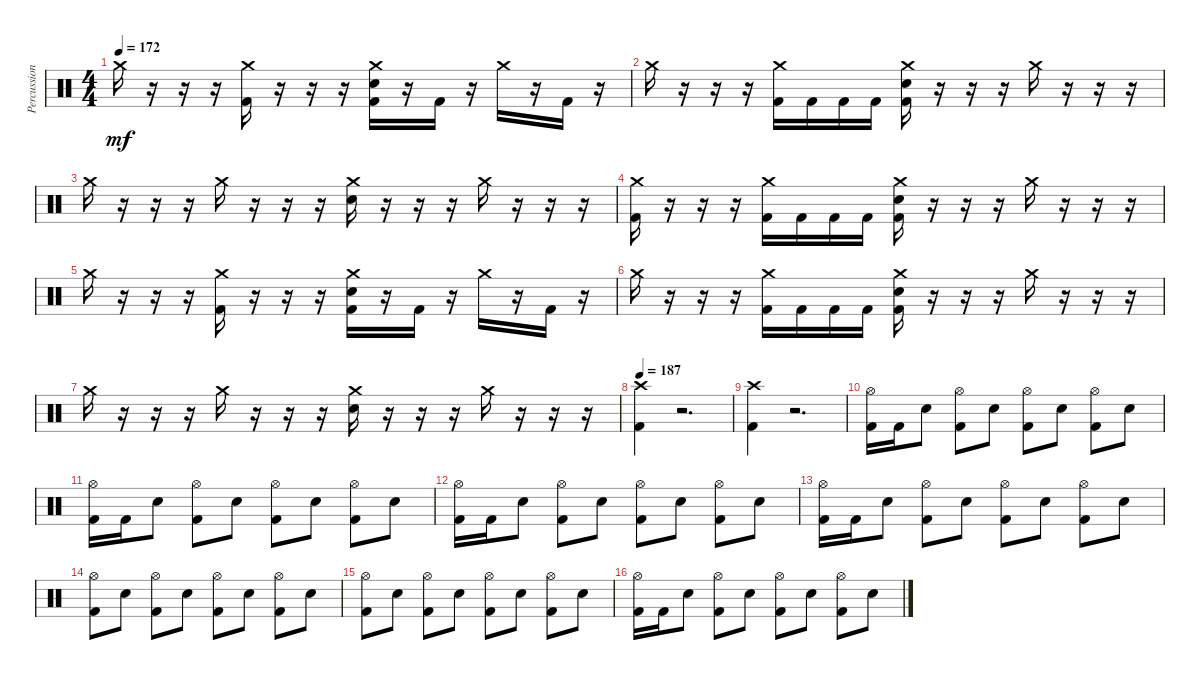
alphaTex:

\track ("Percussion" "Percussion") {instrument percussion}
\staff {score}
\articulation defaults
\ts (4 4)
\tempo 172
\clef neutral
\ks c "Crash medium (hit)".16{dy mf}
r.16 r.16 r.16 ("Crash medium (hit)" "Kick (hit) 2").16 r.16 r.16 r.16 ("Crash medium (hit)" "Electric Snare (hit)" "Kick (hit) 2").16 r.16 "Kick (hit) 2".16 r.16 "Crash medium (hit)".16 r.16 "Kick (hit) 2".16 r.16 |
"Crash medium (hit)".16 r.16 r.16 r.16 ("Crash medium (hit)" "Kick (hit) 2").16 "Kick (hit) 2".16 "Kick (hit) 2".16 "Kick (hit) 2".16 ("Crash medium (hit)" "Electric Snare (hit)" "Kick (hit) 2").16 r.16 r.16 r.16 "Crash medium (hit)".16 r.16 r.16 r.16 |
"Crash medium (hit)".16 r.16 r.16 r.16 "Crash medium (hit)".16 r.16 r.16 r.16 ("Crash medium (hit)" "Electric Snare (hit)").16 r.16 r.16 r.16 "Crash medium (hit)".16 r.16 r.16 r.16 |
("Crash medium (hit)" "Kick (hit) 2").16 r.16 r.16 r.16 ("Crash medium (hit)" "Kick (hit) 2").16 "Kick (hit) 2".16 "Kick (hit) 2".16 "Kick (hit) 2".16 ("Crash medium (hit)" "Electric Snare (hit)" "Kick (hit) 2").16 r.16 r.16 r.16 "Crash medium (hit)".16 r.16 r.16 r.16 |
"Crash medium (hit)".16 r.16 r.16 r.16 ("Crash medium (hit)" "Kick (hit) 2").16 r.16 r.16 r.16 ("Crash medium (hit)" "Electric Snare (hit)" "Kick (hit) 2").16 r.16 "Kick (hit) 2".16 r.16 "Crash medium (hit)".16 r.16 "Kick (hit) 2".16 r.16 |
"Crash medium (hit)".16 r.16 r.16 r.16 ("Crash medium (hit)" "Kick (hit) 2").16 "Kick (hit) 2".16 "Kick (hit) 2".16 "Kick (hit) 2".16 ("Crash medium (hit)" "Electric Snare (hit)" "Kick (hit) 2").16 r.16 r.16 r.16 "Crash medium (hit)".16 r.16 r.16 r.16 |
"Crash medium (hit)".16 r.16 r.16 r.16 "Crash medium (hit)".16 r.16 r.16 r.16 ("Crash medium (hit)" "Electric Snare (hit)").16 r.16 r.16 r.16 "Crash medium (hit)".16 r.16 r.16 r.16 |
\tempo 187
("Crash high (hit)" "Kick (hit) 2").4 r.2{d} |
("Crash high (hit)" "Kick (hit) 2").4 r.2{d} |
("Hi-Hat (open)" "Kick (hit) 2").16 "Kick (hit) 2".16 "Electric Snare (hit)".8 ("Hi-Hat (open)" "Kick (hit) 2").8 "Electric Snare (hit)".8 ("Hi-Hat (open)" "Kick (hit) 2").8 "Electric Snare (hit)".8 ("Hi-Hat (open)" "Kick (hit) 2").8 "Electric Snare (hit)".8 |
("Hi-Hat (open)" "Kick (hit) 2").16 "Kick (hit) 2".16 "Electric Snare (hit)".8 ("Hi-Hat (open)" "Kick (hit) 2").8 "Electric Snare (hit)".8 ("Hi-Hat (open)" "Kick (hit) 2").8 "Electric Snare (hit)".8 ("Hi-Hat (open)" "Kick (hit) 2").8 "Electric Snare (hit)".8 |
("Hi-Hat (open)" "Kick (hit) 2").16 "Kick (hit) 2".16 "Electric Snare (hit)".8 ("Hi-Hat (open)" "Kick (hit) 2").8 "Electric Snare (hit)".8 ("Hi-Hat (open)" "Kick (hit) 2").8 "Electric Snare (hit)".8 ("Hi-Hat (open)" "Kick (hit) 2").8 "Electric Snare (hit)".8 |
("Hi-Hat (open)" "Kick (hit) 2").16 "Kick (hit) 2".16 "Electric Snare (hit)".8 ("Hi-Hat (open)" "Kick (hit) 2").8 "Electric Snare (hit)".8 ("Hi-Hat (open)" "Kick (hit) 2").8 "Electric Snare (hit)".8 ("Hi-Hat (open)" "Kick (hit) 2").8 "Electric Snare (hit)".8 |
("Hi-Hat (open)" "Kick (hit) 2").8 "Electric Snare (hit)".8 ("Hi-Hat (open)" "Kick (hit) 2").8 "Electric Snare (hit)".8 ("Hi-Hat (open)" "Kick (hit) 2").8 "Electric Snare (hit)".8 ("Hi-Hat (open)" "Kick (hit) 2").8 "Electric Snare (hit)".8 |
("Hi-Hat (open)" "Kick (hit) 2").8 "Electric Snare (hit)".8 ("Hi-Hat (open)" "Kick (hit) 2").8 "Electric Snare (hit)".8 ("Hi-Hat (open)" "Kick (hit) 2").8 "Electric Snare (hit)".8 ("Hi-Hat (open)" "Kick (hit) 2").8 "Electric Snare (hit)".8 |
("Hi-Hat (open)" "Kick (hit) 2").16 "Kick (hit) 2".16 "Electric Snare (hit)".8 ("Hi-Hat (open)" "Kick (hit) 2").8 "Electric Snare (hit)".8 ("Hi-Hat (open)" "Kick (hit) 2").8 "Electric Snare (hit)".8 ("Hi-Hat (open)" "Kick (hit) 2").8 "Electric Snare (hit)".8
